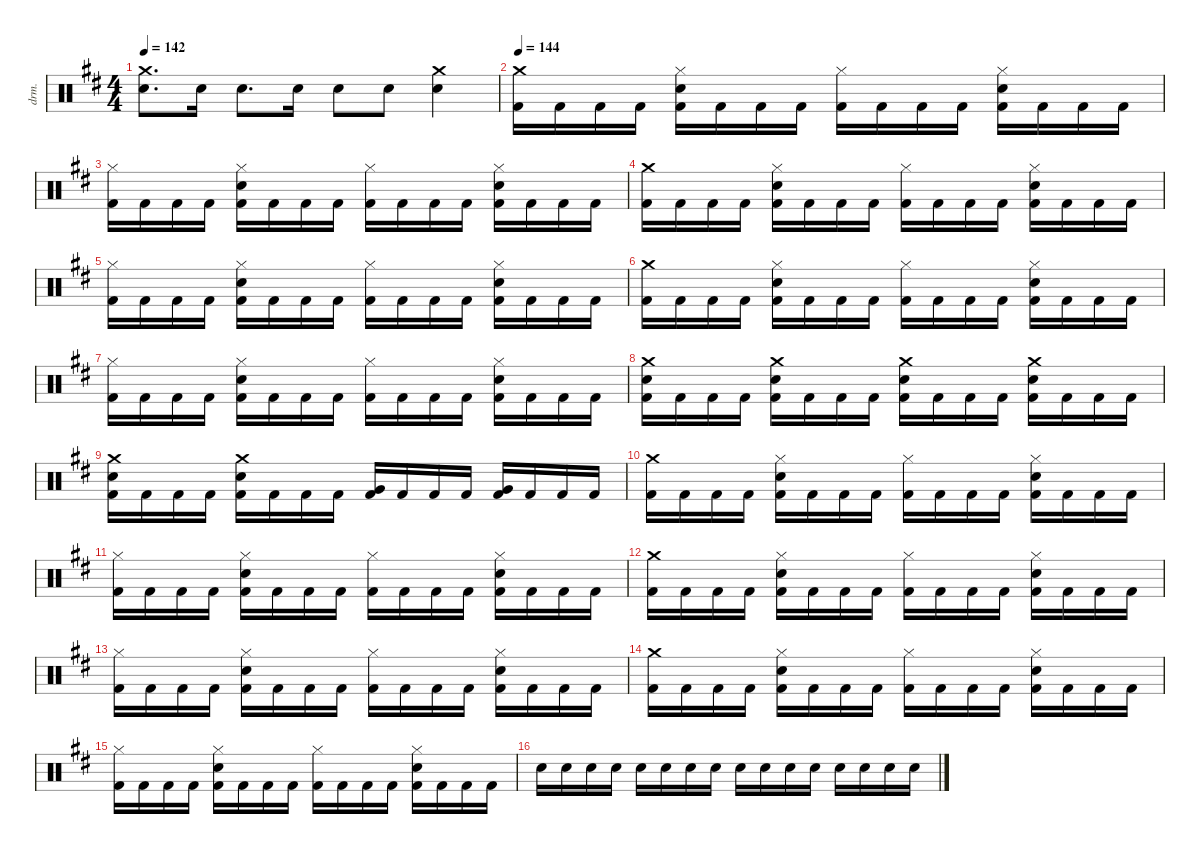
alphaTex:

\defaultSystemsLayout 4
\hideDynamics
\bracketExtendMode nobrackets
\otherSystemsTrackNameOrientation horizontal
\track ("Lars - Drums" "drm.") {defaultSystemsLayout 4 instrument percussion}
\staff {score}
\articulation defaults
\ts (4 4)
\tempo 142
\clef neutral
\ks bminor
("Crash medium (hit)"{acc forcenatural} "Snare (hit) 2"{acc forcenatural}).8{d dy f beam Down} "Snare (hit) 2"{acc forcenatural}.16{beam Down} "Snare (hit) 2"{acc forcenatural}.8{d beam Down} "Snare (hit) 2"{acc forcenatural}.16{beam Down} "Snare (hit) 2"{acc forcenatural}.8{beam Down} "Snare (hit) 2"{acc forcenatural}.8{beam Down} ("Crash medium (hit)"{acc forcenatural} "Snare (hit) 2"{acc forcenatural}).4{beam Down} |
\tempo 144
("Crash medium (hit)"{acc forcenatural} "Kick (hit) 2"{acc forcenatural}).16{beam Down} "Kick (hit) 2"{acc forcenatural}.16{beam Down} "Kick (hit) 2"{acc forcenatural}.16{beam Down} "Kick (hit) 2"{acc forcenatural}.16{beam Down} ("Hi-Hat (closed)"{acc forcenatural} "Snare (hit) 2"{acc forcenatural} "Kick (hit) 2"{acc forcenatural}).16{beam Down} "Kick (hit) 2"{acc forcenatural}.16{beam Down} "Kick (hit) 2"{acc forcenatural}.16{beam Down} "Kick (hit) 2"{acc forcenatural}.16{beam Down} ("Hi-Hat (closed)"{acc forcenatural} "Kick (hit) 2"{acc forcenatural}).16{beam Down} "Kick (hit) 2"{acc forcenatural}.16{beam Down} "Kick (hit) 2"{acc forcenatural}.16{beam Down} "Kick (hit) 2"{acc forcenatural}.16{beam Down} ("Hi-Hat (closed)"{acc forcenatural} "Snare (hit) 2"{acc forcenatural} "Kick (hit) 2"{acc forcenatural}).16{beam Down} "Kick (hit) 2"{acc forcenatural}.16{beam Down} "Kick (hit) 2"{acc forcenatural}.16{beam Down} "Kick (hit) 2"{acc forcenatural}.16{beam Down} |
("Hi-Hat (closed)"{acc forcenatural} "Kick (hit) 2"{acc forcenatural}).16{beam Down} "Kick (hit) 2"{acc forcenatural}.16{beam Down} "Kick (hit) 2"{acc forcenatural}.16{beam Down} "Kick (hit) 2"{acc forcenatural}.16{beam Down} ("Hi-Hat (closed)"{acc forcenatural} "Snare (hit) 2"{acc forcenatural} "Kick (hit) 2"{acc forcenatural}).16{beam Down} "Kick (hit) 2"{acc forcenatural}.16{beam Down} "Kick (hit) 2"{acc forcenatural}.16{beam Down} "Kick (hit) 2"{acc forcenatural}.16{beam Down} ("Hi-Hat (closed)"{acc forcenatural} "Kick (hit) 2"{acc forcenatural}).16{beam Down} "Kick (hit) 2"{acc forcenatural}.16{beam Down} "Kick (hit) 2"{acc forcenatural}.16{beam Down} "Kick (hit) 2"{acc forcenatural}.16{beam Down} ("Hi-Hat (closed)"{acc forcenatural} "Snare (hit) 2"{acc forcenatural} "Kick (hit) 2"{acc forcenatural}).16{beam Down} "Kick (hit) 2"{acc forcenatural}.16{beam Down} "Kick (hit) 2"{acc forcenatural}.16{beam Down} "Kick (hit) 2"{acc forcenatural}.16{beam Down} |
("Crash medium (hit)"{acc forcenatural} "Kick (hit) 2"{acc forcenatural}).16{beam Down} "Kick (hit) 2"{acc forcenatural}.16{beam Down} "Kick (hit) 2"{acc forcenatural}.16{beam Down} "Kick (hit) 2"{acc forcenatural}.16{beam Down} ("Hi-Hat (closed)"{acc forcenatural} "Snare (hit) 2"{acc forcenatural} "Kick (hit) 2"{acc forcenatural}).16{beam Down} "Kick (hit) 2"{acc forcenatural}.16{beam Down} "Kick (hit) 2"{acc forcenatural}.16{beam Down} "Kick (hit) 2"{acc forcenatural}.16{beam Down} ("Hi-Hat (closed)"{acc forcenatural} "Kick (hit) 2"{acc forcenatural}).16{beam Down} "Kick (hit) 2"{acc forcenatural}.16{beam Down} "Kick (hit) 2"{acc forcenatural}.16{beam Down} "Kick (hit) 2"{acc forcenatural}.16{beam Down} ("Hi-Hat (closed)"{acc forcenatural} "Snare (hit) 2"{acc forcenatural} "Kick (hit) 2"{acc forcenatural}).16{beam Down} "Kick (hit) 2"{acc forcenatural}.16{beam Down} "Kick (hit) 2"{acc forcenatural}.16{beam Down} "Kick (hit) 2"{acc forcenatural}.16{beam Down} |
("Hi-Hat (closed)"{acc forcenatural} "Kick (hit) 2"{acc forcenatural}).16{beam Down} "Kick (hit) 2"{acc forcenatural}.16{beam Down} "Kick (hit) 2"{acc forcenatural}.16{beam Down} "Kick (hit) 2"{acc forcenatural}.16{beam Down} ("Hi-Hat (closed)"{acc forcenatural} "Snare (hit) 2"{acc forcenatural} "Kick (hit) 2"{acc forcenatural}).16{beam Down} "Kick (hit) 2"{acc forcenatural}.16{beam Down} "Kick (hit) 2"{acc forcenatural}.16{beam Down} "Kick (hit) 2"{acc forcenatural}.16{beam Down} ("Hi-Hat (closed)"{acc forcenatural} "Kick (hit) 2"{acc forcenatural}).16{beam Down} "Kick (hit) 2"{acc forcenatural}.16{beam Down} "Kick (hit) 2"{acc forcenatural}.16{beam Down} "Kick (hit) 2"{acc forcenatural}.16{beam Down} ("Hi-Hat (closed)"{acc forcenatural} "Snare (hit) 2"{acc forcenatural} "Kick (hit) 2"{acc forcenatural}).16{beam Down} "Kick (hit) 2"{acc forcenatural}.16{beam Down} "Kick (hit) 2"{acc forcenatural}.16{beam Down} "Kick (hit) 2"{acc forcenatural}.16{beam Down} |
("Crash medium (hit)"{acc forcenatural} "Kick (hit) 2"{acc forcenatural}).16{beam Down} "Kick (hit) 2"{acc forcenatural}.16{beam Down} "Kick (hit) 2"{acc forcenatural}.16{beam Down} "Kick (hit) 2"{acc forcenatural}.16{beam Down} ("Hi-Hat (closed)"{acc forcenatural} "Snare (hit) 2"{acc forcenatural} "Kick (hit) 2"{acc forcenatural}).16{beam Down} "Kick (hit) 2"{acc forcenatural}.16{beam Down} "Kick (hit) 2"{acc forcenatural}.16{beam Down} "Kick (hit) 2"{acc forcenatural}.16{beam Down} ("Hi-Hat (closed)"{acc forcenatural} "Kick (hit) 2"{acc forcenatural}).16{beam Down} "Kick (hit) 2"{acc forcenatural}.16{beam Down} "Kick (hit) 2"{acc forcenatural}.16{beam Down} "Kick (hit) 2"{acc forcenatural}.16{beam Down} ("Hi-Hat (closed)"{acc forcenatural} "Snare (hit) 2"{acc forcenatural} "Kick (hit) 2"{acc forcenatural}).16{beam Down} "Kick (hit) 2"{acc forcenatural}.16{beam Down} "Kick (hit) 2"{acc forcenatural}.16{beam Down} "Kick (hit) 2"{acc forcenatural}.16{beam Down} |
("Hi-Hat (closed)"{acc forcenatural} "Kick (hit) 2"{acc forcenatural}).16{beam Down} "Kick (hit) 2"{acc forcenatural}.16{beam Down} "Kick (hit) 2"{acc forcenatural}.16{beam Down} "Kick (hit) 2"{acc forcenatural}.16{beam Down} ("Hi-Hat (closed)"{acc forcenatural} "Snare (hit) 2"{acc forcenatural} "Kick (hit) 2"{acc forcenatural}).16{beam Down} "Kick (hit) 2"{acc forcenatural}.16{beam Down} "Kick (hit) 2"{acc forcenatural}.16{beam Down} "Kick (hit) 2"{acc forcenatural}.16{beam Down} ("Hi-Hat (closed)"{acc forcenatural} "Kick (hit) 2"{acc forcenatural}).16{beam Down} "Kick (hit) 2"{acc forcenatural}.16{beam Down} "Kick (hit) 2"{acc forcenatural}.16{beam Down} "Kick (hit) 2"{acc forcenatural}.16{beam Down} ("Hi-Hat (closed)"{acc forcenatural} "Snare (hit) 2"{acc forcenatural} "Kick (hit) 2"{acc forcenatural}).16{beam Down} "Kick (hit) 2"{acc forcenatural}.16{beam Down} "Kick (hit) 2"{acc forcenatural}.16{beam Down} "Kick (hit) 2"{acc forcenatural}.16{beam Down} |
("Crash medium (hit)"{acc forcenatural} "Snare (hit) 2"{acc forcenatural} "Kick (hit) 2"{acc forcenatural}).16{beam Down} "Kick (hit) 2"{acc forcenatural}.16{beam Down} "Kick (hit) 2"{acc forcenatural}.16{beam Down} "Kick (hit) 2"{acc forcenatural}.16{beam Down} ("Crash medium (hit)"{acc forcenatural} "Snare (hit) 2"{acc forcenatural} "Kick (hit) 2"{acc forcenatural}).16{beam Down} "Kick (hit) 2"{acc forcenatural}.16{beam Down} "Kick (hit) 2"{acc forcenatural}.16{beam Down} "Kick (hit) 2"{acc forcenatural}.16{beam Down} ("Crash medium (hit)"{acc forcenatural} "Snare (hit) 2"{acc forcenatural} "Kick (hit) 2"{acc forcenatural}).16{beam Down} "Kick (hit) 2"{acc forcenatural}.16{beam Down} "Kick (hit) 2"{acc forcenatural}.16{beam Down} "Kick (hit) 2"{acc forcenatural}.16{beam Down} ("Crash medium (hit)"{acc forcenatural} "Snare (hit) 2"{acc forcenatural} "Kick (hit) 2"{acc forcenatural}).16{beam Down} "Kick (hit) 2"{acc forcenatural}.16{beam Down} "Kick (hit) 2"{acc forcenatural}.16{beam Down} "Kick (hit) 2"{acc forcenatural}.16{beam Down} |
("Crash medium (hit)"{acc forcenatural} "Snare (hit) 2"{acc forcenatural} "Kick (hit) 2"{acc forcenatural}).16{beam Down} "Kick (hit) 2"{acc forcenatural}.16{beam Down} "Kick (hit) 2"{acc forcenatural}.16{beam Down} "Kick (hit) 2"{acc forcenatural}.16{beam Down} ("Crash medium (hit)"{acc forcenatural} "Snare (hit) 2"{acc forcenatural} "Kick (hit) 2"{acc forcenatural}).16{beam Down} "Kick (hit) 2"{acc forcenatural}.16{beam Down} "Kick (hit) 2"{acc forcenatural}.16{beam Down} "Kick (hit) 2"{acc forcenatural}.16{beam Down} ("Very Low Tom (hit)"{acc forcenatural} "Kick (hit) 2"{acc forcenatural}).16{beam Up} "Kick (hit) 2"{acc forcenatural}.16{beam Up} "Kick (hit) 2"{acc forcenatural}.16{beam Up} "Kick (hit) 2"{acc forcenatural}.16{beam Up} ("Very Low Tom (hit)"{acc forcenatural} "Kick (hit) 2"{acc forcenatural}).16{beam Up} "Kick (hit) 2"{acc forcenatural}.16{beam Up} "Kick (hit) 2"{acc forcenatural}.16{beam Up} "Kick (hit) 2"{acc forcenatural}.16{beam Up} |
("Crash medium (hit)"{acc forcenatural} "Kick (hit) 2"{acc forcenatural}).16{beam Down} "Kick (hit) 2"{acc forcenatural}.16{beam Down} "Kick (hit) 2"{acc forcenatural}.16{beam Down} "Kick (hit) 2"{acc forcenatural}.16{beam Down} ("Hi-Hat (closed)"{acc forcenatural} "Snare (hit) 2"{acc forcenatural} "Kick (hit) 2"{acc forcenatural}).16{beam Down} "Kick (hit) 2"{acc forcenatural}.16{beam Down} "Kick (hit) 2"{acc forcenatural}.16{beam Down} "Kick (hit) 2"{acc forcenatural}.16{beam Down} ("Hi-Hat (closed)"{acc forcenatural} "Kick (hit) 2"{acc forcenatural}).16{beam Down} "Kick (hit) 2"{acc forcenatural}.16{beam Down} "Kick (hit) 2"{acc forcenatural}.16{beam Down} "Kick (hit) 2"{acc forcenatural}.16{beam Down} ("Hi-Hat (closed)"{acc forcenatural} "Snare (hit) 2"{acc forcenatural} "Kick (hit) 2"{acc forcenatural}).16{beam Down} "Kick (hit) 2"{acc forcenatural}.16{beam Down} "Kick (hit) 2"{acc forcenatural}.16{beam Down} "Kick (hit) 2"{acc forcenatural}.16{beam Down} |
("Hi-Hat (closed)"{acc forcenatural} "Kick (hit) 2"{acc forcenatural}).16{beam Down} "Kick (hit) 2"{acc forcenatural}.16{beam Down} "Kick (hit) 2"{acc forcenatural}.16{beam Down} "Kick (hit) 2"{acc forcenatural}.16{beam Down} ("Hi-Hat (closed)"{acc forcenatural} "Snare (hit) 2"{acc forcenatural} "Kick (hit) 2"{acc forcenatural}).16{beam Down} "Kick (hit) 2"{acc forcenatural}.16{beam Down} "Kick (hit) 2"{acc forcenatural}.16{beam Down} "Kick (hit) 2"{acc forcenatural}.16{beam Down} ("Hi-Hat (closed)"{acc forcenatural} "Kick (hit) 2"{acc forcenatural}).16{beam Down} "Kick (hit) 2"{acc forcenatural}.16{beam Down} "Kick (hit) 2"{acc forcenatural}.16{beam Down} "Kick (hit) 2"{acc forcenatural}.16{beam Down} ("Hi-Hat (closed)"{acc forcenatural} "Snare (hit) 2"{acc forcenatural} "Kick (hit) 2"{acc forcenatural}).16{beam Down} "Kick (hit) 2"{acc forcenatural}.16{beam Down} "Kick (hit) 2"{acc forcenatural}.16{beam Down} "Kick (hit) 2"{acc forcenatural}.16{beam Down} |
("Crash medium (hit)"{acc forcenatural} "Kick (hit) 2"{acc forcenatural}).16{beam Down} "Kick (hit) 2"{acc forcenatural}.16{beam Down} "Kick (hit) 2"{acc forcenatural}.16{beam Down} "Kick (hit) 2"{acc forcenatural}.16{beam Down} ("Hi-Hat (closed)"{acc forcenatural} "Snare (hit) 2"{acc forcenatural} "Kick (hit) 2"{acc forcenatural}).16{beam Down} "Kick (hit) 2"{acc forcenatural}.16{beam Down} "Kick (hit) 2"{acc forcenatural}.16{beam Down} "Kick (hit) 2"{acc forcenatural}.16{beam Down} ("Hi-Hat (closed)"{acc forcenatural} "Kick (hit) 2"{acc forcenatural}).16{beam Down} "Kick (hit) 2"{acc forcenatural}.16{beam Down} "Kick (hit) 2"{acc forcenatural}.16{beam Down} "Kick (hit) 2"{acc forcenatural}.16{beam Down} ("Hi-Hat (closed)"{acc forcenatural} "Snare (hit) 2"{acc forcenatural} "Kick (hit) 2"{acc forcenatural}).16{beam Down} "Kick (hit) 2"{acc forcenatural}.16{beam Down} "Kick (hit) 2"{acc forcenatural}.16{beam Down} "Kick (hit) 2"{acc forcenatural}.16{beam Down} |
("Hi-Hat (closed)"{acc forcenatural} "Kick (hit) 2"{acc forcenatural}).16{beam Down} "Kick (hit) 2"{acc forcenatural}.16{beam Down} "Kick (hit) 2"{acc forcenatural}.16{beam Down} "Kick (hit) 2"{acc forcenatural}.16{beam Down} ("Hi-Hat (closed)"{acc forcenatural} "Snare (hit) 2"{acc forcenatural} "Kick (hit) 2"{acc forcenatural}).16{beam Down} "Kick (hit) 2"{acc forcenatural}.16{beam Down} "Kick (hit) 2"{acc forcenatural}.16{beam Down} "Kick (hit) 2"{acc forcenatural}.16{beam Down} ("Hi-Hat (closed)"{acc forcenatural} "Kick (hit) 2"{acc forcenatural}).16{beam Down} "Kick (hit) 2"{acc forcenatural}.16{beam Down} "Kick (hit) 2"{acc forcenatural}.16{beam Down} "Kick (hit) 2"{acc forcenatural}.16{beam Down} ("Hi-Hat (closed)"{acc forcenatural} "Snare (hit) 2"{acc forcenatural} "Kick (hit) 2"{acc forcenatural}).16{beam Down} "Kick (hit) 2"{acc forcenatural}.16{beam Down} "Kick (hit) 2"{acc forcenatural}.16{beam Down} "Kick (hit) 2"{acc forcenatural}.16{beam Down} |
("Crash medium (hit)"{acc forcenatural} "Kick (hit) 2"{acc forcenatural}).16{beam Down} "Kick (hit) 2"{acc forcenatural}.16{beam Down} "Kick (hit) 2"{acc forcenatural}.16{beam Down} "Kick (hit) 2"{acc forcenatural}.16{beam Down} ("Hi-Hat (closed)"{acc forcenatural} "Snare (hit) 2"{acc forcenatural} "Kick (hit) 2"{acc forcenatural}).16{beam Down} "Kick (hit) 2"{acc forcenatural}.16{beam Down} "Kick (hit) 2"{acc forcenatural}.16{beam Down} "Kick (hit) 2"{acc forcenatural}.16{beam Down} ("Hi-Hat (closed)"{acc forcenatural} "Kick (hit) 2"{acc forcenatural}).16{beam Down} "Kick (hit) 2"{acc forcenatural}.16{beam Down} "Kick (hit) 2"{acc forcenatural}.16{beam Down} "Kick (hit) 2"{acc forcenatural}.16{beam Down} ("Hi-Hat (closed)"{acc forcenatural} "Snare (hit) 2"{acc forcenatural} "Kick (hit) 2"{acc forcenatural}).16{beam Down} "Kick (hit) 2"{acc forcenatural}.16{beam Down} "Kick (hit) 2"{acc forcenatural}.16{beam Down} "Kick (hit) 2"{acc forcenatural}.16{beam Down} |
("Hi-Hat (closed)"{acc forcenatural} "Kick (hit) 2"{acc forcenatural}).16{beam Down} "Kick (hit) 2"{acc forcenatural}.16{beam Down} "Kick (hit) 2"{acc forcenatural}.16{beam Down} "Kick (hit) 2"{acc forcenatural}.16{beam Down} ("Hi-Hat (closed)"{acc forcenatural} "Snare (hit) 2"{acc forcenatural} "Kick (hit) 2"{acc forcenatural}).16{beam Down} "Kick (hit) 2"{acc forcenatural}.16{beam Down} "Kick (hit) 2"{acc forcenatural}.16{beam Down} "Kick (hit) 2"{acc forcenatural}.16{beam Down} ("Hi-Hat (closed)"{acc forcenatural} "Kick (hit) 2"{acc forcenatural}).16{beam Down} "Kick (hit) 2"{acc forcenatural}.16{beam Down} "Kick (hit) 2"{acc forcenatural}.16{beam Down} "Kick (hit) 2"{acc forcenatural}.16{beam Down} ("Hi-Hat (closed)"{acc forcenatural} "Snare (hit) 2"{acc forcenatural} "Kick (hit) 2"{acc forcenatural}).16{beam Down} "Kick (hit) 2"{acc forcenatural}.16{beam Down} "Kick (hit) 2"{acc forcenatural}.16{beam Down} "Kick (hit) 2"{acc forcenatural}.16{beam Down} |
"Snare (hit) 2"{acc forcenatural}.16{beam Down} "Snare (hit) 2"{acc forcenatural}.16{beam Down} "Snare (hit) 2"{acc forcenatural}.16{beam Down} "Snare (hit) 2"{acc forcenatural}.16{beam Down} "Snare (hit) 2"{acc forcenatural}.16{beam Down} "Snare (hit) 2"{acc forcenatural}.16{beam Down} "Snare (hit) 2"{acc forcenatural}.16{beam Down} "Snare (hit) 2"{acc forcenatural}.16{beam Down} "Snare (hit) 2"{acc forcenatural}.16{beam Down} "Snare (hit) 2"{acc forcenatural}.16{beam Down} "Snare (hit) 2"{acc forcenatural}.16{beam Down} "Snare (hit) 2"{acc forcenatural}.16{beam Down} "Snare (hit) 2"{acc forcenatural}.16{beam Down} "Snare (hit) 2"{acc forcenatural}.16{beam Down} "Snare (hit) 2"{acc forcenatural}.16{beam Down} "Snare (hit) 2"{acc forcenatural}.16{beam Down}
